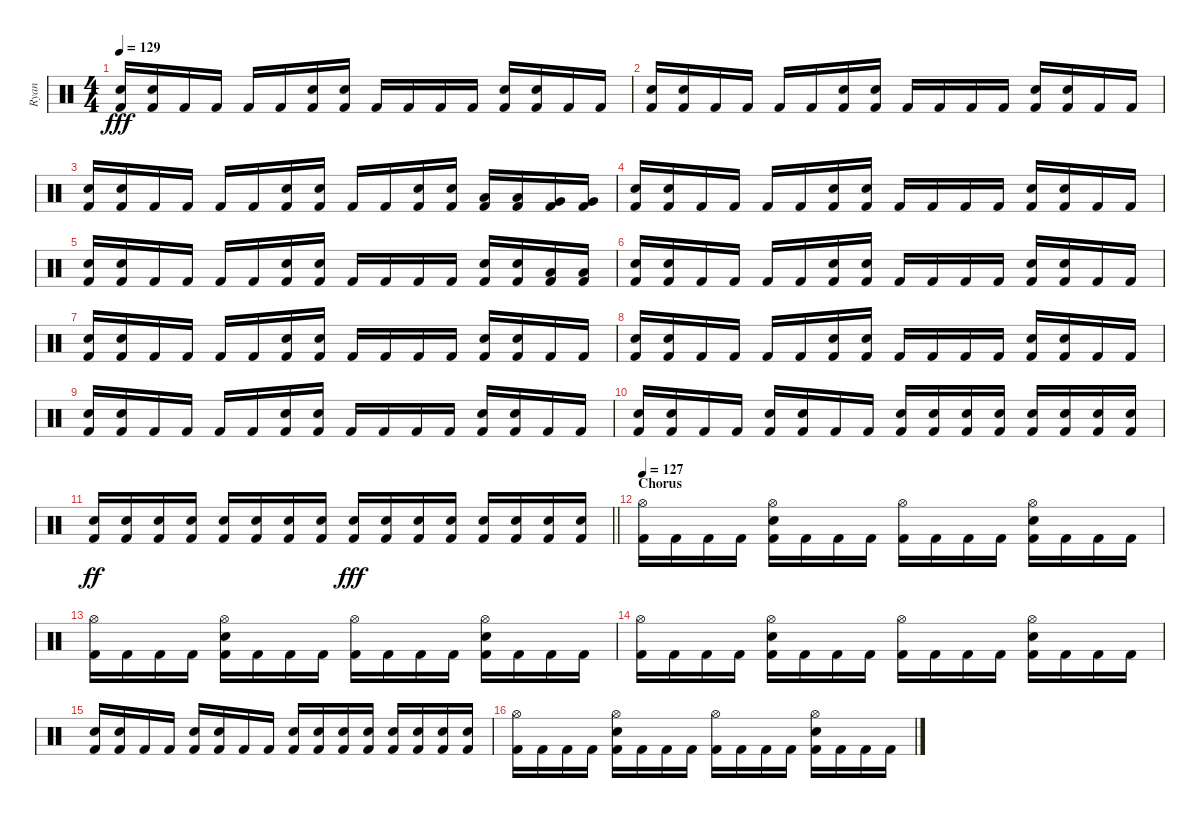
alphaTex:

\track ("Ryan" "Ryan") {instrument percussion}
\staff {score}
\articulation defaults
\ts (4 4)
\tempo 129
\clef neutral
\ks c
("Electric Snare (hit)" "Kick (hit) 2").16{dy fff} ("Electric Snare (hit)" "Kick (hit) 2").16 "Kick (hit) 2".16 "Kick (hit) 2".16 "Kick (hit) 2".16 "Kick (hit) 2".16 ("Electric Snare (hit)" "Kick (hit) 2").16 ("Electric Snare (hit)" "Kick (hit) 2").16 "Kick (hit) 2".16 "Kick (hit) 2".16 "Kick (hit) 2".16 "Kick (hit) 2".16 ("Electric Snare (hit)" "Kick (hit) 2").16 ("Electric Snare (hit)" "Kick (hit) 2").16 "Kick (hit) 2".16 "Kick (hit) 2".16 |
("Electric Snare (hit)" "Kick (hit) 2").16 ("Electric Snare (hit)" "Kick (hit) 2").16 "Kick (hit) 2".16 "Kick (hit) 2".16 "Kick (hit) 2".16 "Kick (hit) 2".16 ("Electric Snare (hit)" "Kick (hit) 2").16 ("Electric Snare (hit)" "Kick (hit) 2").16 "Kick (hit) 2".16 "Kick (hit) 2".16 "Kick (hit) 2".16 "Kick (hit) 2".16 ("Electric Snare (hit)" "Kick (hit) 2").16 ("Electric Snare (hit)" "Kick (hit) 2").16 "Kick (hit) 2".16 "Kick (hit) 2".16 |
("Electric Snare (hit)" "Kick (hit) 2").16 ("Electric Snare (hit)" "Kick (hit) 2").16 "Kick (hit) 2".16 "Kick (hit) 2".16 "Kick (hit) 2".16 "Kick (hit) 2".16 ("Electric Snare (hit)" "Kick (hit) 2").16 ("Electric Snare (hit)" "Kick (hit) 2").16 "Kick (hit) 2".16 "Kick (hit) 2".16 ("Electric Snare (hit)" "Kick (hit) 2").16 ("Electric Snare (hit)" "Kick (hit) 2").16 ("Low Tom (hit)" "Kick (hit) 2").16 ("Low Tom (hit)" "Kick (hit) 2").16 ("Very Low Tom (hit)" "Kick (hit) 2").16 ("Very Low Tom (hit)" "Kick (hit) 2").16 |
("Electric Snare (hit)" "Kick (hit) 2").16 ("Electric Snare (hit)" "Kick (hit) 2").16 "Kick (hit) 2".16 "Kick (hit) 2".16 "Kick (hit) 2".16 "Kick (hit) 2".16 ("Electric Snare (hit)" "Kick (hit) 2").16 ("Electric Snare (hit)" "Kick (hit) 2").16 "Kick (hit) 2".16 "Kick (hit) 2".16 "Kick (hit) 2".16 "Kick (hit) 2".16 ("Electric Snare (hit)" "Kick (hit) 2").16 ("Electric Snare (hit)" "Kick (hit) 2").16 "Kick (hit) 2".16 "Kick (hit) 2".16 |
("Electric Snare (hit)" "Kick (hit) 2").16 ("Electric Snare (hit)" "Kick (hit) 2").16 "Kick (hit) 2".16 "Kick (hit) 2".16 "Kick (hit) 2".16 "Kick (hit) 2".16 ("Electric Snare (hit)" "Kick (hit) 2").16 ("Electric Snare (hit)" "Kick (hit) 2").16 "Kick (hit) 2".16 "Kick (hit) 2".16 "Kick (hit) 2".16 "Kick (hit) 2".16 ("Electric Snare (hit)" "Kick (hit) 2").16 ("Electric Snare (hit)" "Kick (hit) 2").16 ("Low Tom (hit)" "Kick (hit) 2").16 ("Low Tom (hit)" "Kick (hit) 2").16 |
("Electric Snare (hit)" "Kick (hit) 2").16 ("Electric Snare (hit)" "Kick (hit) 2").16 "Kick (hit) 2".16 "Kick (hit) 2".16 "Kick (hit) 2".16 "Kick (hit) 2".16 ("Electric Snare (hit)" "Kick (hit) 2").16 ("Electric Snare (hit)" "Kick (hit) 2").16 "Kick (hit) 2".16 "Kick (hit) 2".16 "Kick (hit) 2".16 "Kick (hit) 2".16 ("Electric Snare (hit)" "Kick (hit) 2").16 ("Electric Snare (hit)" "Kick (hit) 2").16 "Kick (hit) 2".16 "Kick (hit) 2".16 |
("Electric Snare (hit)" "Kick (hit) 2").16 ("Electric Snare (hit)" "Kick (hit) 2").16 "Kick (hit) 2".16 "Kick (hit) 2".16 "Kick (hit) 2".16 "Kick (hit) 2".16 ("Electric Snare (hit)" "Kick (hit) 2").16 ("Electric Snare (hit)" "Kick (hit) 2").16 "Kick (hit) 2".16 "Kick (hit) 2".16 "Kick (hit) 2".16 "Kick (hit) 2".16 ("Electric Snare (hit)" "Kick (hit) 2").16 ("Electric Snare (hit)" "Kick (hit) 2").16 "Kick (hit) 2".16 "Kick (hit) 2".16 |
("Electric Snare (hit)" "Kick (hit) 2").16 ("Electric Snare (hit)" "Kick (hit) 2").16 "Kick (hit) 2".16 "Kick (hit) 2".16 "Kick (hit) 2".16 "Kick (hit) 2".16 ("Electric Snare (hit)" "Kick (hit) 2").16 ("Electric Snare (hit)" "Kick (hit) 2").16 "Kick (hit) 2".16 "Kick (hit) 2".16 "Kick (hit) 2".16 "Kick (hit) 2".16 ("Electric Snare (hit)" "Kick (hit) 2").16 ("Electric Snare (hit)" "Kick (hit) 2").16 "Kick (hit) 2".16 "Kick (hit) 2".16 |
("Electric Snare (hit)" "Kick (hit) 2").16 ("Electric Snare (hit)" "Kick (hit) 2").16 "Kick (hit) 2".16 "Kick (hit) 2".16 "Kick (hit) 2".16 "Kick (hit) 2".16 ("Electric Snare (hit)" "Kick (hit) 2").16 ("Electric Snare (hit)" "Kick (hit) 2").16 "Kick (hit) 2".16 "Kick (hit) 2".16 "Kick (hit) 2".16 "Kick (hit) 2".16 ("Electric Snare (hit)" "Kick (hit) 2").16 ("Electric Snare (hit)" "Kick (hit) 2").16 "Kick (hit) 2".16 "Kick (hit) 2".16 |
("Electric Snare (hit)" "Kick (hit) 2").16 ("Electric Snare (hit)" "Kick (hit) 2").16 "Kick (hit) 2".16 "Kick (hit) 2".16 ("Electric Snare (hit)" "Kick (hit) 2").16 ("Electric Snare (hit)" "Kick (hit) 2").16 "Kick (hit) 2".16 "Kick (hit) 2".16 ("Electric Snare (hit)" "Kick (hit) 2").16 ("Electric Snare (hit)" "Kick (hit) 2").16 ("Electric Snare (hit)" "Kick (hit) 2").16 ("Electric Snare (hit)" "Kick (hit) 2").16 ("Electric Snare (hit)" "Kick (hit) 2").16 ("Electric Snare (hit)" "Kick (hit) 2").16 ("Electric Snare (hit)" "Kick (hit) 2").16 ("Electric Snare (hit)" "Kick (hit) 2").16 |
\barLineRight lightlight
("Electric Snare (hit)" "Kick (hit) 2").16{dy ff} ("Electric Snare (hit)" "Kick (hit) 2").16 ("Electric Snare (hit)" "Kick (hit) 2").16 ("Electric Snare (hit)" "Kick (hit) 2").16 ("Electric Snare (hit)" "Kick (hit) 2").16 ("Electric Snare (hit)" "Kick (hit) 2").16 ("Electric Snare (hit)" "Kick (hit) 2").16 ("Electric Snare (hit)" "Kick (hit) 2").16 ("Electric Snare (hit)" "Kick (hit) 2").16{dy fff} ("Electric Snare (hit)" "Kick (hit) 2").16 ("Electric Snare (hit)" "Kick (hit) 2").16 ("Electric Snare (hit)" "Kick (hit) 2").16 ("Electric Snare (hit)" "Kick (hit) 2").16 ("Electric Snare (hit)" "Kick (hit) 2").16 ("Electric Snare (hit)" "Kick (hit) 2").16 ("Electric Snare (hit)" "Kick (hit) 2").16 |
\section ("" "Chorus")
\tempo 127
("Hi-Hat (open)" "Kick (hit) 2").16 "Kick (hit) 2".16 "Kick (hit) 2".16 "Kick (hit) 2".16 ("Hi-Hat (open)" "Electric Snare (hit)" "Kick (hit) 2").16 "Kick (hit) 2".16 "Kick (hit) 2".16 "Kick (hit) 2".16 ("Hi-Hat (open)" "Kick (hit) 2").16 "Kick (hit) 2".16 "Kick (hit) 2".16 "Kick (hit) 2".16 ("Hi-Hat (open)" "Electric Snare (hit)" "Kick (hit) 2").16 "Kick (hit) 2".16 "Kick (hit) 2".16 "Kick (hit) 2".16 |
("Hi-Hat (open)" "Kick (hit) 2").16 "Kick (hit) 2".16 "Kick (hit) 2".16 "Kick (hit) 2".16 ("Hi-Hat (open)" "Electric Snare (hit)" "Kick (hit) 2").16 "Kick (hit) 2".16 "Kick (hit) 2".16 "Kick (hit) 2".16 ("Hi-Hat (open)" "Kick (hit) 2").16 "Kick (hit) 2".16 "Kick (hit) 2".16 "Kick (hit) 2".16 ("Hi-Hat (open)" "Electric Snare (hit)" "Kick (hit) 2").16 "Kick (hit) 2".16 "Kick (hit) 2".16 "Kick (hit) 2".16 |
("Hi-Hat (open)" "Kick (hit) 2").16 "Kick (hit) 2".16 "Kick (hit) 2".16 "Kick (hit) 2".16 ("Hi-Hat (open)" "Electric Snare (hit)" "Kick (hit) 2").16 "Kick (hit) 2".16 "Kick (hit) 2".16 "Kick (hit) 2".16 ("Hi-Hat (open)" "Kick (hit) 2").16 "Kick (hit) 2".16 "Kick (hit) 2".16 "Kick (hit) 2".16 ("Hi-Hat (open)" "Electric Snare (hit)" "Kick (hit) 2").16 "Kick (hit) 2".16 "Kick (hit) 2".16 "Kick (hit) 2".16 |
("Electric Snare (hit)" "Kick (hit) 2").16 ("Electric Snare (hit)" "Kick (hit) 2").16 "Kick (hit) 2".16 "Kick (hit) 2".16 ("Electric Snare (hit)" "Kick (hit) 2").16 ("Electric Snare (hit)" "Kick (hit) 2").16 "Kick (hit) 2".16 "Kick (hit) 2".16 ("Electric Snare (hit)" "Kick (hit) 2").16 ("Electric Snare (hit)" "Kick (hit) 2").16 ("Electric Snare (hit)" "Kick (hit) 2").16 ("Electric Snare (hit)" "Kick (hit) 2").16 ("Electric Snare (hit)" "Kick (hit) 2").16 ("Electric Snare (hit)" "Kick (hit) 2").16 ("Electric Snare (hit)" "Kick (hit) 2").16 ("Electric Snare (hit)" "Kick (hit) 2").16 |
("Hi-Hat (open)" "Kick (hit) 2").16 "Kick (hit) 2".16 "Kick (hit) 2".16 "Kick (hit) 2".16 ("Hi-Hat (open)" "Electric Snare (hit)" "Kick (hit) 2").16 "Kick (hit) 2".16 "Kick (hit) 2".16 "Kick (hit) 2".16 ("Hi-Hat (open)" "Kick (hit) 2").16 "Kick (hit) 2".16 "Kick (hit) 2".16 "Kick (hit) 2".16 ("Hi-Hat (open)" "Electric Snare (hit)" "Kick (hit) 2").16 "Kick (hit) 2".16 "Kick (hit) 2".16 "Kick (hit) 2".16
